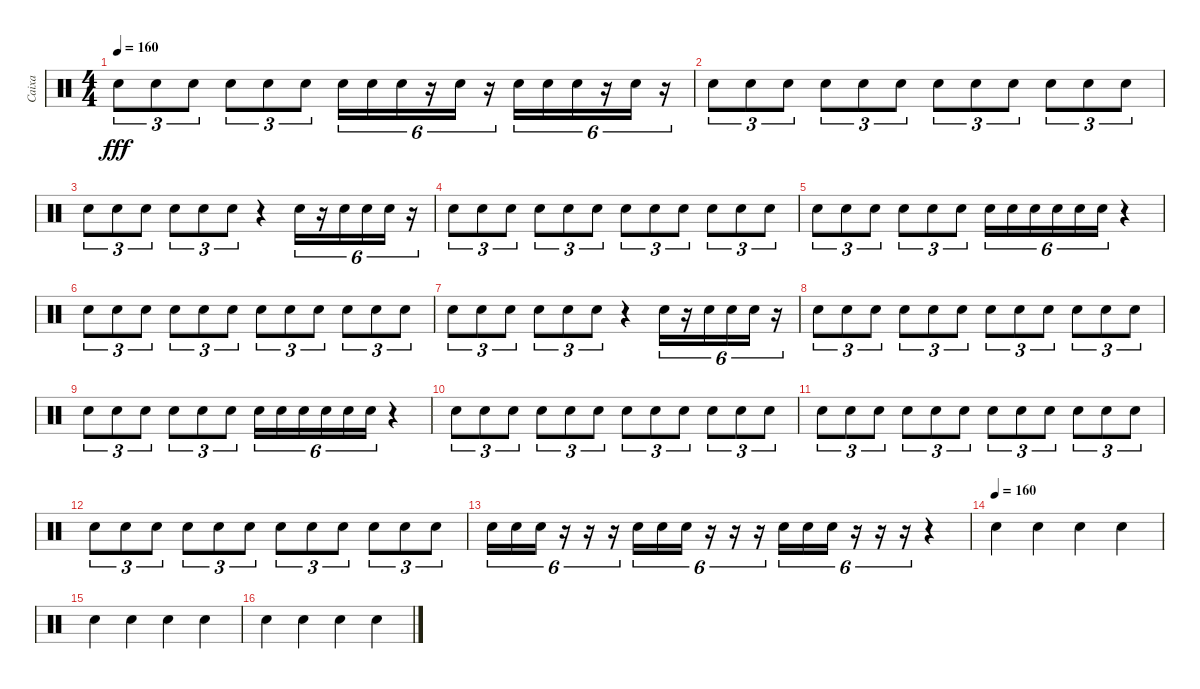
\track ("Caixa" "Caixa") {instrument percussion}
\staff {score}
\articulation defaults
\ts (4 4)
\tempo 160
\clef neutral
\ks c "Electric Snare (hit)".8{tu (3 2) dy fff} "Electric Snare (hit)".8{tu (3 2)} "Electric Snare (hit)".8{tu (3 2)} "Electric Snare (hit)".8{tu (3 2)} "Electric Snare (hit)".8{tu (3 2)} "Electric Snare (hit)".8{tu (3 2)} "Electric Snare (hit)".16{tu (6 4)} "Electric Snare (hit)".16{tu (6 4)} "Electric Snare (hit)".16{tu (6 4)}
r.16{tu (6 4)} "Electric Snare (hit)".16{tu (6 4)} r.16{tu (6 4)} "Electric Snare (hit)".16{tu (6 4)} "Electric Snare (hit)".16{tu (6 4)} "Electric Snare (hit)".16{tu (6 4)} r.16{tu (6 4)} "Electric Snare (hit)".16{tu (6 4)} r.16{tu (6 4)} |
"Electric Snare (hit)".8{tu (3 2)} "Electric Snare (hit)".8{tu (3 2)} "Electric Snare (hit)".8{tu (3 2)} "Electric Snare (hit)".8{tu (3 2)} "Electric Snare (hit)".8{tu (3 2)} "Electric Snare (hit)".8{tu (3 2)} "Electric Snare (hit)".8{tu (3 2)} "Electric Snare (hit)".8{tu (3 2)} "Electric Snare (hit)".8{tu (3 2)} "Electric Snare (hit)".8{tu (3 2)} "Electric Snare (hit)".8{tu (3 2)} "Electric Snare (hit)".8{tu (3 2)} |
"Electric Snare (hit)".8{tu (3 2)} "Electric Snare (hit)".8{tu (3 2)} "Electric Snare (hit)".8{tu (3 2)} "Electric Snare (hit)".8{tu (3 2)} "Electric Snare (hit)".8{tu (3 2)} "Electric Snare (hit)".8{tu (3 2)} r.4 "Electric Snare (hit)".16{tu (6 4)} r.16{tu (6 4)} "Electric Snare (hit)".16{tu (6 4)} "Electric Snare (hit)".16{tu (6 4)} "Electric Snare (hit)".16{tu (6 4)} r.16{tu (6 4)} |
"Electric Snare (hit)".8{tu (3 2)} "Electric Snare (hit)".8{tu (3 2)} "Electric Snare (hit)".8{tu (3 2)} "Electric Snare (hit)".8{tu (3 2)} "Electric Snare (hit)".8{tu (3 2)} "Electric Snare (hit)".8{tu (3 2)} "Electric Snare (hit)".8{tu (3 2)} "Electric Snare (hit)".8{tu (3 2)} "Electric Snare (hit)".8{tu (3 2)} "Electric Snare (hit)".8{tu (3 2)} "Electric Snare (hit)".8{tu (3 2)} "Electric Snare (hit)".8{tu (3 2)} |
"Electric Snare (hit)".8{tu (3 2)} "Electric Snare (hit)".8{tu (3 2)} "Electric Snare (hit)".8{tu (3 2)} "Electric Snare (hit)".8{tu (3 2)} "Electric Snare (hit)".8{tu (3 2)} "Electric Snare (hit)".8{tu (3 2)} "Electric Snare (hit)".16{tu (6 4)} "Electric Snare (hit)".16{tu (6 4)} "Electric Snare (hit)".16{tu (6 4)} "Electric Snare (hit)".16{tu (6 4)} "Electric Snare (hit)".16{tu (6 4)} "Electric Snare (hit)".16{tu (6 4)} r.4 |
"Electric Snare (hit)".8{tu (3 2)} "Electric Snare (hit)".8{tu (3 2)} "Electric Snare (hit)".8{tu (3 2)} "Electric Snare (hit)".8{tu (3 2)} "Electric Snare (hit)".8{tu (3 2)} "Electric Snare (hit)".8{tu (3 2)} "Electric Snare (hit)".8{tu (3 2)} "Electric Snare (hit)".8{tu (3 2)} "Electric Snare (hit)".8{tu (3 2)} "Electric Snare (hit)".8{tu (3 2)} "Electric Snare (hit)".8{tu (3 2)} "Electric Snare (hit)".8{tu (3 2)} |
"Electric Snare (hit)".8{tu (3 2)} "Electric Snare (hit)".8{tu (3 2)} "Electric Snare (hit)".8{tu (3 2)} "Electric Snare (hit)".8{tu (3 2)} "Electric Snare (hit)".8{tu (3 2)} "Electric Snare (hit)".8{tu (3 2)} r.4 "Electric Snare (hit)".16{tu (6 4)} r.16{tu (6 4)} "Electric Snare (hit)".16{tu (6 4)} "Electric Snare (hit)".16{tu (6 4)} "Electric Snare (hit)".16{tu (6 4)} r.16{tu (6 4)} |
"Electric Snare (hit)".8{tu (3 2)} "Electric Snare (hit)".8{tu (3 2)} "Electric Snare (hit)".8{tu (3 2)} "Electric Snare (hit)".8{tu (3 2)} "Electric Snare (hit)".8{tu (3 2)} "Electric Snare (hit)".8{tu (3 2)} "Electric Snare (hit)".8{tu (3 2)} "Electric Snare (hit)".8{tu (3 2)} "Electric Snare (hit)".8{tu (3 2)} "Electric Snare (hit)".8{tu (3 2)} "Electric Snare (hit)".8{tu (3 2)} "Electric Snare (hit)".8{tu (3 2)} |
"Electric Snare (hit)".8{tu (3 2)} "Electric Snare (hit)".8{tu (3 2)} "Electric Snare (hit)".8{tu (3 2)} "Electric Snare (hit)".8{tu (3 2)} "Electric Snare (hit)".8{tu (3 2)} "Electric Snare (hit)".8{tu (3 2)} "Electric Snare (hit)".16{tu (6 4)} "Electric Snare (hit)".16{tu (6 4)} "Electric Snare (hit)".16{tu (6 4)} "Electric Snare (hit)".16{tu (6 4)} "Electric Snare (hit)".16{tu (6 4)} "Electric Snare (hit)".16{tu (6 4)} r.4 |
"Electric Snare (hit)".8{tu (3 2)} "Electric Snare (hit)".8{tu (3 2)} "Electric Snare (hit)".8{tu (3 2)} "Electric Snare (hit)".8{tu (3 2)} "Electric Snare (hit)".8{tu (3 2)} "Electric Snare (hit)".8{tu (3 2)} "Electric Snare (hit)".8{tu (3 2)} "Electric Snare (hit)".8{tu (3 2)} "Electric Snare (hit)".8{tu (3 2)} "Electric Snare (hit)".8{tu (3 2)} "Electric Snare (hit)".8{tu (3 2)} "Electric Snare (hit)".8{tu (3 2)} |
"Electric Snare (hit)".8{tu (3 2)} "Electric Snare (hit)".8{tu (3 2)} "Electric Snare (hit)".8{tu (3 2)} "Electric Snare (hit)".8{tu (3 2)} "Electric Snare (hit)".8{tu (3 2)} "Electric Snare (hit)".8{tu (3 2)} "Electric Snare (hit)".8{tu (3 2)} "Electric Snare (hit)".8{tu (3 2)} "Electric Snare (hit)".8{tu (3 2)} "Electric Snare (hit)".8{tu (3 2)} "Electric Snare (hit)".8{tu (3 2)} "Electric Snare (hit)".8{tu (3 2)} |
"Electric Snare (hit)".8{tu (3 2)} "Electric Snare (hit)".8{tu (3 2)} "Electric Snare (hit)".8{tu (3 2)} "Electric Snare (hit)".8{tu (3 2)} "Electric Snare (hit)".8{tu (3 2)} "Electric Snare (hit)".8{tu (3 2)} "Electric Snare (hit)".8{tu (3 2)} "Electric Snare (hit)".8{tu (3 2)} "Electric Snare (hit)".8{tu (3 2)} "Electric Snare (hit)".8{tu (3 2)} "Electric Snare (hit)".8{tu (3 2)} "Electric Snare (hit)".8{tu (3 2)} |
"Electric Snare (hit)".16{tu (6 4)} "Electric Snare (hit)".16{tu (6 4)} "Electric Snare (hit)".16{tu (6 4)} r.16{tu (6 4)} r.16{tu (6 4)} r.16{tu (6 4)} "Electric Snare (hit)".16{tu (6 4)} "Electric Snare (hit)".16{tu (6 4)} "Electric Snare (hit)".16{tu (6 4)} r.16{tu (6 4)} r.16{tu (6 4)} r.16{tu (6 4)} "Electric Snare (hit)".16{tu (6 4)} "Electric Snare (hit)".16{tu (6 4)} "Electric Snare (hit)".16{tu (6 4)} r.16{tu (6 4)} r.16{tu (6 4)} r.16{tu (6 4)} r.4 |
\tempo (160)
"Electric Snare (hit)".4 "Electric Snare (hit)".4 "Electric Snare (hit)".4 "Electric Snare (hit)".4 |
"Electric Snare (hit)".4 "Electric Snare (hit)".4 "Electric Snare (hit)".4 "Electric Snare (hit)".4 |
"Electric Snare (hit)".4 "Electric Snare (hit)".4 "Electric Snare (hit)".4 "Electric Snare (hit)".4
